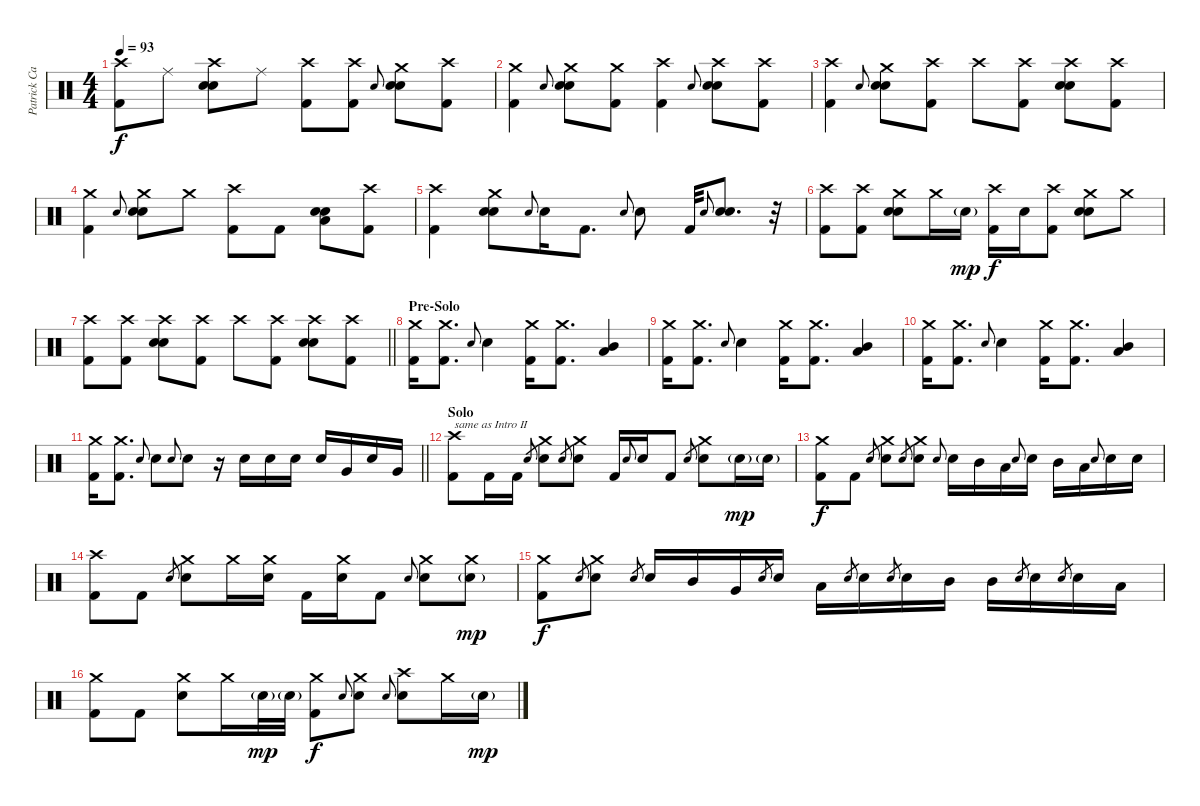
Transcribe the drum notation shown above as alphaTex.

\track ("Patrick Carney [Drums]" "Patrick Ca") {instrument percussion}
\staff {score}
\articulation defaults
\ts (4 4)
\tempo 93
\clef neutral
\ks c
("Crash high (hit)" "Kick (hit) 2").8{dy f} "Ride (middle)".8 ("Crash high (hit)" "Hand Clap (hit)" "Electric Snare (hit)").8 "Ride (middle)".8 ("Crash high (hit)" "Kick (hit) 2").8 ("Crash high (hit)" "Kick (hit) 2").8 "Electric Snare (hit)".8{gr onbeat} ("Crash medium (hit)" "Hand Clap (hit)" "Electric Snare (hit)").8 ("Crash high (hit)" "Kick (hit) 2").8 |
("Crash medium (hit)" "Kick (hit) 2").4 "Electric Snare (hit)".8{gr onbeat} ("Crash medium (hit)" "Hand Clap (hit)" "Electric Snare (hit)").8 ("Crash medium (hit)" "Kick (hit) 2").8 ("Crash high (hit)" "Kick (hit) 2").4 "Electric Snare (hit)".8{gr onbeat} ("Crash high (hit)" "Hand Clap (hit)" "Electric Snare (hit)").8 ("Crash high (hit)" "Kick (hit) 2").8 |
("Crash high (hit)" "Kick (hit) 2").4 "Electric Snare (hit)".8{gr onbeat} ("Crash medium (hit)" "Hand Clap (hit)" "Electric Snare (hit)").8 ("Crash high (hit)" "Kick (hit) 2").8 "Crash high (hit)".8 ("Crash high (hit)" "Kick (hit) 2").8 ("Crash high (hit)" "Hand Clap (hit)" "Electric Snare (hit)").8 ("Crash high (hit)" "Kick (hit) 2").8 |
("Crash medium (hit)" "Kick (hit) 2").4 "Electric Snare (hit)".8{gr onbeat} ("Crash medium (hit)" "Hand Clap (hit)" "Electric Snare (hit)").8 "Crash medium (hit)".8 ("Crash high (hit)" "Kick (hit) 2").8 "Kick (hit) 2".8 ("Hand Clap (hit)" "Low Floor Tom (hit)" "Electric Snare (hit)").8 ("Crash high (hit)" "Kick (hit) 2").8 |
("Crash high (hit)" "Kick (hit) 2").4 ("Crash medium (hit)" "Hand Clap (hit)" "Electric Snare (hit)").8 "Electric Snare (hit)".8{gr onbeat} "Electric Snare (hit)".16 "Kick (hit) 2".8{d} "Electric Snare (hit)".8{gr onbeat} "Electric Snare (hit)".8 "Kick (hit) 2".32 "Electric Snare (hit)".8{gr onbeat} ("Hand Clap (hit)" "Electric Snare (hit)").8{d} r.32 |
("Crash high (hit)" "Kick (hit) 2").8 ("Crash high (hit)" "Kick (hit) 2").8 ("Crash medium (hit)" "Hand Clap (hit)" "Electric Snare (hit)").8 "Crash medium (hit)".16 "Electric Snare (hit)"{g}.16{dy mp} ("Crash high (hit)" "Kick (hit) 2").16{dy f} "Electric Snare (hit)".16 ("Crash high (hit)" "Kick (hit) 2").8 ("Crash medium (hit)" "Hand Clap (hit)" "Electric Snare (hit)").8 "Crash medium (hit)".8 |
\barLineRight lightlight
("Crash high (hit)" "Kick (hit) 2").8 ("Crash high (hit)" "Kick (hit) 2").8 ("Crash high (hit)" "Hand Clap (hit)" "Electric Snare (hit)").8 ("Crash high (hit)" "Kick (hit) 2").8 "Crash high (hit)".8 ("Crash high (hit)" "Kick (hit) 2").8 ("Crash high (hit)" "Hand Clap (hit)" "Electric Snare (hit)").8 ("Crash high (hit)" "Kick (hit) 2").8 |
\section ("" "Pre-Solo")
("Crash medium (hit)" "Kick (hit) 2").16 ("Crash medium (hit)" "Kick (hit) 2").8{d} "Electric Snare (hit)".8{gr onbeat} "Electric Snare (hit)".4 ("Crash medium (hit)" "Kick (hit) 2").16 ("Crash medium (hit)" "Kick (hit) 2").8{d} ("Low Floor Tom (hit)" "Mid Tom (hit)").4 |
("Crash medium (hit)" "Kick (hit) 2").16 ("Crash medium (hit)" "Kick (hit) 2").8{d} "Electric Snare (hit)".8{gr onbeat} "Electric Snare (hit)".4 ("Crash medium (hit)" "Kick (hit) 2").16 ("Crash medium (hit)" "Kick (hit) 2").8{d} ("Low Floor Tom (hit)" "Mid Tom (hit)").4 |
("Crash medium (hit)" "Kick (hit) 2").16 ("Crash medium (hit)" "Kick (hit) 2").8{d} "Electric Snare (hit)".8{gr onbeat} "Electric Snare (hit)".4 ("Crash medium (hit)" "Kick (hit) 2").16 ("Crash medium (hit)" "Kick (hit) 2").8{d} ("Low Floor Tom (hit)" "Mid Tom (hit)").4 |
\barLineRight lightlight
("Crash medium (hit)" "Kick (hit) 2").16 ("Crash medium (hit)" "Kick (hit) 2").8{d} "Electric Snare (hit)".8{gr onbeat} "Electric Snare (hit)".8 "Electric Snare (hit)".8{gr onbeat} "Electric Snare (hit)".8 r.16 "Electric Snare (hit)".16 "Electric Snare (hit)".16 "Electric Snare (hit)".16 "Electric Snare (hit)".16 "Very Low Tom (hit)".16 "Electric Snare (hit)".16 "Very Low Tom (hit)".16 |
\section ("" "Solo")
("Crash high (hit)" "Kick (hit) 2").8{txt "same as Intro II"} "Kick (hit) 2".16 "Kick (hit) 2".16 "Electric Snare (hit)".8{gr} ("Crash medium (hit)" "Electric Snare (hit)").8 "Electric Snare (hit)".8{gr} ("Crash medium (hit)" "Electric Snare (hit)").8 "Kick (hit) 2".16 "Electric Snare (hit)".8{gr onbeat} "Electric Snare (hit)".16 "Kick (hit) 2".8 "Electric Snare (hit)".8{gr} ("Crash medium (hit)" "Electric Snare (hit)").8 "Electric Snare (hit)"{g}.16{dy mp} "Electric Snare (hit)"{g}.16 |
("Crash medium (hit)" "Kick (hit) 2").8{dy f} "Kick (hit) 2".8 "Electric Snare (hit)".8{gr} ("Crash medium (hit)" "Electric Snare (hit)").8 "Electric Snare (hit)".8{gr} ("Crash medium (hit)" "Electric Snare (hit)").8 "Electric Snare (hit)".8{gr onbeat} "Electric Snare (hit)".16 "Mid Tom (hit)".16 "Low Floor Tom (hit)".16 "Electric Snare (hit)".8{gr onbeat} "Electric Snare (hit)".16 "Mid Tom (hit)".16 "Low Floor Tom (hit)".16 "Electric Snare (hit)".8{gr onbeat} "Electric Snare (hit)".16 "Electric Snare (hit)".16 |
("Crash high (hit)" "Kick (hit) 2").8 "Kick (hit) 2".8 "Electric Snare (hit)".8{gr} ("Crash medium (hit)" "Electric Snare (hit)").8 "Crash medium (hit)".16 ("Crash medium (hit)" "Electric Snare (hit)").16 "Kick (hit) 2".16 ("Crash medium (hit)" "Electric Snare (hit)").16 "Kick (hit) 2".8 "Electric Snare (hit)".8{gr onbeat} ("Crash medium (hit)" "Electric Snare (hit)").8 ("Crash medium (hit)" "Electric Snare (hit)"{g}).8{dy mp} |
("Crash medium (hit)" "Kick (hit) 2").8{dy f} "Electric Snare (hit)".8{gr} ("Crash medium (hit)" "Electric Snare (hit)").8 "Electric Snare (hit)".8{gr} "Electric Snare (hit)".16 "Mid Tom (hit)".16 "Very Low Tom (hit)".16 "Electric Snare (hit)".8{gr} "Electric Snare (hit)".16 "Low Floor Tom (hit)".16 "Electric Snare (hit)".8{gr} "Electric Snare (hit)".16 "Electric Snare (hit)".8{gr} "Electric Snare (hit)".16 "Mid Tom (hit)".16 "Mid Tom (hit)".16 "Electric Snare (hit)".8{gr} "Electric Snare (hit)".16 "Electric Snare (hit)".8{gr} "Electric Snare (hit)".16 "Low Floor Tom (hit)".16 |
("Crash medium (hit)" "Kick (hit) 2").8 "Kick (hit) 2".8 ("Crash medium (hit)" "Electric Snare (hit)").8 "Crash medium (hit)".16 "Electric Snare (hit)"{g}.32{dy mp} "Electric Snare (hit)"{g}.32 ("Crash medium (hit)" "Kick (hit) 2").8{dy f} "Electric Snare (hit)".8{gr onbeat} ("Crash medium (hit)" "Electric Snare (hit)").8 "Electric Snare (hit)".8{gr onbeat} ("Crash high (hit)" "Electric Snare (hit)").8 "Crash medium (hit)".16 "Electric Snare (hit)"{g}.16{dy mp}
